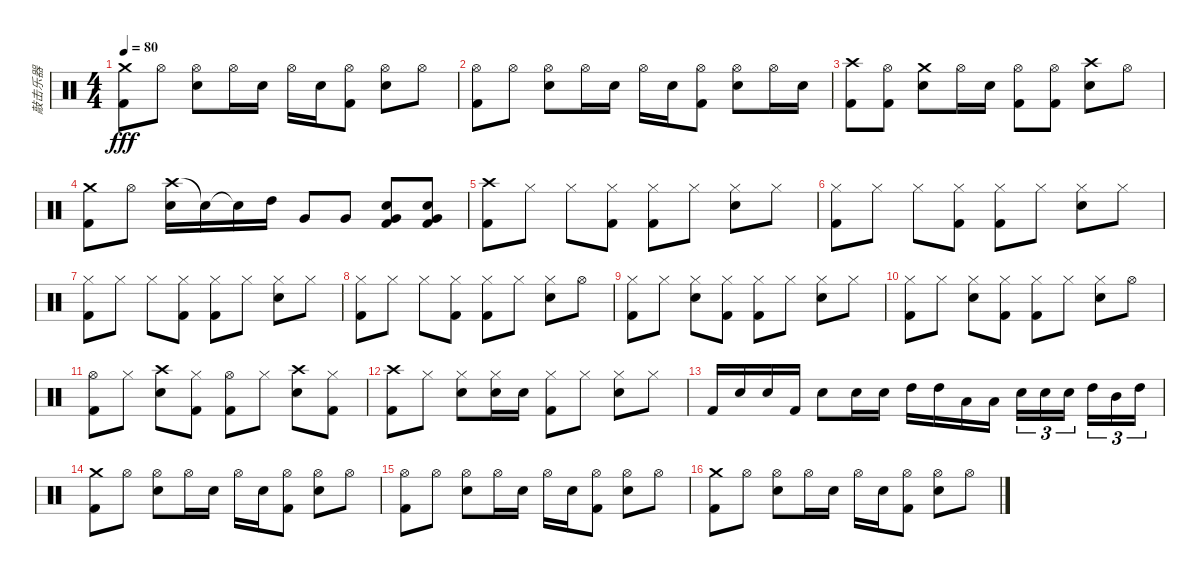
\track ("敲击乐器" "敲击乐器") {instrument percussion}
\staff {score}
\articulation defaults
\ts (4 4)
\tempo 80
\clef neutral
\ks c
("Crash medium (hit)" "Kick (hit) 2").8{dy fff} "Hi-Hat (open)".8 ("Hi-Hat (open)" "Electric Snare (hit)").8 "Hi-Hat (open)".16 "Electric Snare (hit)".16 "Hi-Hat (open)".16 "Electric Snare (hit)".16 ("Hi-Hat (open)" "Kick (hit) 2").8 ("Hi-Hat (open)" "Electric Snare (hit)").8 "Hi-Hat (open)".8 |
("Hi-Hat (open)" "Kick (hit) 2").8 "Hi-Hat (open)".8 ("Hi-Hat (open)" "Electric Snare (hit)").8 "Hi-Hat (open)".16 "Electric Snare (hit)".16 "Hi-Hat (open)".16 "Electric Snare (hit)".16 ("Hi-Hat (open)" "Kick (hit) 2").8 ("Hi-Hat (open)" "Electric Snare (hit)").8 "Hi-Hat (open)".16 "Electric Snare (hit)".16 |
("Crash high (hit)" "Kick (hit) 2").8 ("Hi-Hat (open)" "Kick (hit) 2").8 ("Crash medium (hit)" "Electric Snare (hit)").8 "Hi-Hat (open)".16 "Electric Snare (hit)".16 ("Hi-Hat (open)" "Kick (hit) 2").8 ("Hi-Hat (open)" "Kick (hit) 2").8 ("Crash high (hit)" "Electric Snare (hit)").8 "Hi-Hat (open)".8 |
("Crash medium (hit)" "Kick (hit) 2").8 "Hi-Hat (open)".8 ("Crash high (hit)" "Electric Snare (hit)").16 "Snare (hit)"{t}.16 "Snare (hit)"{t}.16 "High Tom (hit)".16 "Very Low Tom (hit)".8 "Very Low Tom (hit)".8 ("Electric Snare (hit)" "Very Low Tom (hit)" "Kick (hit) 2").8 ("Electric Snare (hit)" "Very Low Tom (hit)" "Kick (hit) 2").8 |
("Crash high (hit)" "Kick (hit) 2").8 "Hi-Hat (closed)".8 "Hi-Hat (closed)".8 ("Hi-Hat (closed)" "Kick (hit) 2").8 ("Hi-Hat (closed)" "Kick (hit) 2").8 "Hi-Hat (closed)".8 ("Hi-Hat (closed)" "Electric Snare (hit)").8 "Hi-Hat (closed)".8 |
("Hi-Hat (closed)" "Kick (hit) 2").8 "Hi-Hat (closed)".8 "Hi-Hat (closed)".8 ("Hi-Hat (closed)" "Kick (hit) 2").8 ("Hi-Hat (closed)" "Kick (hit) 2").8 "Hi-Hat (closed)".8 ("Hi-Hat (closed)" "Electric Snare (hit)").8 "Hi-Hat (closed)".8 |
("Hi-Hat (closed)" "Kick (hit) 2").8 "Hi-Hat (closed)".8 "Hi-Hat (closed)".8 ("Hi-Hat (closed)" "Kick (hit) 2").8 ("Hi-Hat (closed)" "Kick (hit) 2").8 "Hi-Hat (closed)".8 ("Hi-Hat (closed)" "Electric Snare (hit)").8 "Hi-Hat (closed)".8 |
("Hi-Hat (closed)" "Kick (hit) 2").8 "Hi-Hat (closed)".8 "Hi-Hat (closed)".8 ("Hi-Hat (closed)" "Kick (hit) 2").8 ("Hi-Hat (closed)" "Kick (hit) 2").8 "Hi-Hat (closed)".8 ("Hi-Hat (closed)" "Electric Snare (hit)").8 "Hi-Hat (open)".8 |
("Hi-Hat (closed)" "Kick (hit) 2").8 "Hi-Hat (closed)".8 ("Hi-Hat (closed)" "Electric Snare (hit)").8 ("Hi-Hat (closed)" "Kick (hit) 2").8 ("Hi-Hat (closed)" "Kick (hit) 2").8 "Hi-Hat (closed)".8 ("Hi-Hat (closed)" "Electric Snare (hit)").8 "Hi-Hat (closed)".8 |
("Hi-Hat (closed)" "Kick (hit) 2").8 "Hi-Hat (closed)".8 ("Hi-Hat (closed)" "Electric Snare (hit)").8 ("Hi-Hat (closed)" "Kick (hit) 2").8 ("Hi-Hat (closed)" "Kick (hit) 2").8 "Hi-Hat (closed)".8 ("Hi-Hat (closed)" "Electric Snare (hit)").8 "Hi-Hat (open)".8 |
("Hi-Hat (open)" "Kick (hit) 2").8 "Hi-Hat (closed)".8 ("Crash high (hit)" "Electric Snare (hit)").8 ("Hi-Hat (closed)" "Kick (hit) 2").8 ("Hi-Hat (open)" "Kick (hit) 2").8 "Hi-Hat (closed)".8 ("Crash high (hit)" "Electric Snare (hit)").8 ("Hi-Hat (closed)" "Kick (hit) 2").8 |
("Crash high (hit)" "Kick (hit) 2").8 "Hi-Hat (closed)".8 ("Hi-Hat (closed)" "Electric Snare (hit)").8 ("Hi-Hat (closed)" "Electric Snare (hit)").16 "Electric Snare (hit)".16 ("Hi-Hat (closed)" "Kick (hit) 2").8 "Hi-Hat (closed)".8 ("Hi-Hat (closed)" "Electric Snare (hit)").8 "Hi-Hat (closed)".8 |
"Kick (hit) 2".16 "Electric Snare (hit)".16 "Electric Snare (hit)".16 "Kick (hit) 2".16 "Electric Snare (hit)".8 "Electric Snare (hit)".16 "Electric Snare (hit)".16 "High Tom (hit)".16 "High Tom (hit)".16 "Low Tom (hit)".16 "Low Tom (hit)".16 "Electric Snare (hit)".16{tu (3 2)} "Electric Snare (hit)".16{tu (3 2)} "Electric Snare (hit)".16{tu (3 2) beam splitsecondary} "High Tom (hit)".16{tu (3 2)} "Mid Tom (hit)".16{tu (3 2)} "High Tom (hit)".16{tu (3 2)} |
("Crash medium (hit)" "Kick (hit) 2").8 "Hi-Hat (open)".8 ("Hi-Hat (open)" "Electric Snare (hit)").8 "Hi-Hat (open)".16 "Electric Snare (hit)".16 "Hi-Hat (open)".16 "Electric Snare (hit)".16 ("Hi-Hat (open)" "Kick (hit) 2").8 ("Hi-Hat (open)" "Electric Snare (hit)").8 "Hi-Hat (open)".8 |
("Hi-Hat (open)" "Kick (hit) 2").8 "Hi-Hat (open)".8 ("Hi-Hat (open)" "Electric Snare (hit)").8 "Hi-Hat (open)".16 "Electric Snare (hit)".16 "Hi-Hat (open)".16 "Electric Snare (hit)".16 ("Hi-Hat (open)" "Kick (hit) 2").8 ("Hi-Hat (open)" "Electric Snare (hit)").8 "Hi-Hat (open)".8 |
("Crash medium (hit)" "Kick (hit) 2").8 "Hi-Hat (open)".8 ("Hi-Hat (open)" "Electric Snare (hit)").8 "Hi-Hat (open)".16 "Electric Snare (hit)".16 "Hi-Hat (open)".16 "Electric Snare (hit)".16 ("Hi-Hat (open)" "Kick (hit) 2").8 ("Hi-Hat (open)" "Electric Snare (hit)").8 "Hi-Hat (open)".8
